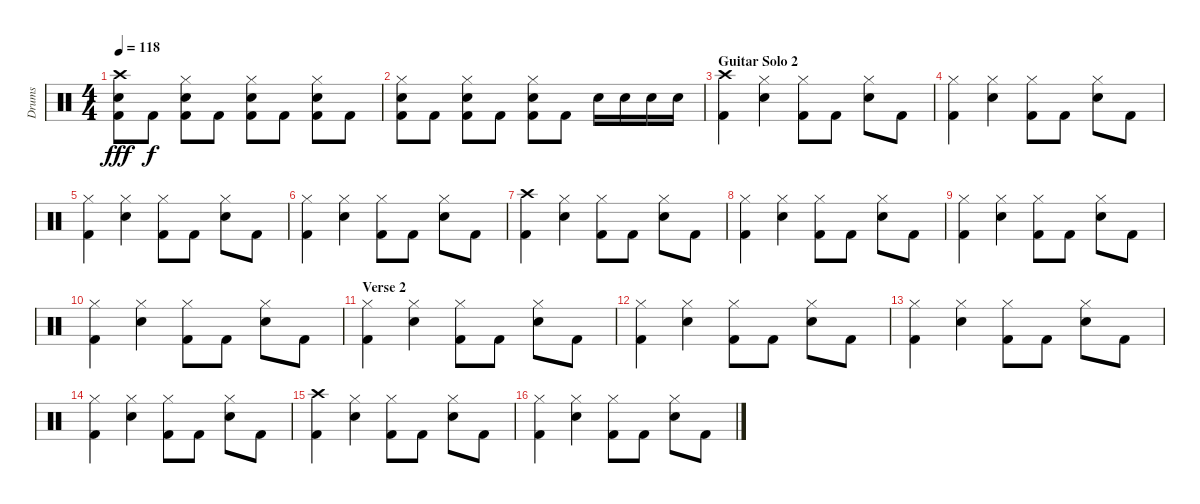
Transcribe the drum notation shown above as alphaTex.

\track ("Drums" "Drums") {instrument percussion}
\staff {score}
\articulation defaults
\ts (4 4)
\tempo 118
\clef neutral
\ks c
("Crash high (hit)" "Snare (hit) 2" "Kick (hit) 2").8{dy fff} "Kick (hit) 2".8{dy f} ("Hi-Hat (closed)" "Snare (hit) 2" "Kick (hit) 2").8 "Kick (hit) 2".8 ("Hi-Hat (closed)" "Snare (hit) 2" "Kick (hit) 2").8 "Kick (hit) 2".8 ("Hi-Hat (closed)" "Snare (hit) 2" "Kick (hit) 2").8 "Kick (hit) 2".8 |
("Hi-Hat (closed)" "Snare (hit) 2" "Kick (hit) 2").8 "Kick (hit) 2".8 ("Hi-Hat (closed)" "Snare (hit) 2" "Kick (hit) 2").8 "Kick (hit) 2".8 ("Hi-Hat (closed)" "Snare (hit) 2" "Kick (hit) 2").8 "Kick (hit) 2".8 "Snare (hit) 2".16 "Snare (hit) 2".16 "Snare (hit) 2".16 "Snare (hit) 2".16 |
\section ("" "Guitar Solo 2")
("Crash high (hit)" "Kick (hit) 2").4 ("Hi-Hat (closed)" "Snare (hit) 2").4 ("Hi-Hat (closed)" "Kick (hit) 2").8 "Kick (hit) 2".8 ("Hi-Hat (closed)" "Snare (hit) 2").8 "Kick (hit) 2".8 |
("Hi-Hat (closed)" "Kick (hit) 2").4 ("Hi-Hat (closed)" "Snare (hit) 2").4 ("Hi-Hat (closed)" "Kick (hit) 2").8 "Kick (hit) 2".8 ("Hi-Hat (closed)" "Snare (hit) 2").8 "Kick (hit) 2".8 |
("Hi-Hat (closed)" "Kick (hit) 2").4 ("Hi-Hat (closed)" "Snare (hit) 2").4 ("Hi-Hat (closed)" "Kick (hit) 2").8 "Kick (hit) 2".8 ("Hi-Hat (closed)" "Snare (hit) 2").8 "Kick (hit) 2".8 |
("Hi-Hat (closed)" "Kick (hit) 2").4 ("Hi-Hat (closed)" "Snare (hit) 2").4 ("Hi-Hat (closed)" "Kick (hit) 2").8 "Kick (hit) 2".8 ("Hi-Hat (closed)" "Snare (hit) 2").8 "Kick (hit) 2".8 |
("Crash high (hit)" "Kick (hit) 2").4 ("Hi-Hat (closed)" "Snare (hit) 2").4 ("Hi-Hat (closed)" "Kick (hit) 2").8 "Kick (hit) 2".8 ("Hi-Hat (closed)" "Snare (hit) 2").8 "Kick (hit) 2".8 |
("Hi-Hat (closed)" "Kick (hit) 2").4 ("Hi-Hat (closed)" "Snare (hit) 2").4 ("Hi-Hat (closed)" "Kick (hit) 2").8 "Kick (hit) 2".8 ("Hi-Hat (closed)" "Snare (hit) 2").8 "Kick (hit) 2".8 |
("Hi-Hat (closed)" "Kick (hit) 2").4 ("Hi-Hat (closed)" "Snare (hit) 2").4 ("Hi-Hat (closed)" "Kick (hit) 2").8 "Kick (hit) 2".8 ("Hi-Hat (closed)" "Snare (hit) 2").8 "Kick (hit) 2".8 |
("Hi-Hat (closed)" "Kick (hit) 2").4 ("Hi-Hat (closed)" "Snare (hit) 2").4 ("Hi-Hat (closed)" "Kick (hit) 2").8 "Kick (hit) 2".8 ("Hi-Hat (closed)" "Snare (hit) 2").8 "Kick (hit) 2".8 |
\section ("" "Verse 2")
("Hi-Hat (closed)" "Kick (hit) 2").4 ("Hi-Hat (closed)" "Snare (hit) 2").4 ("Hi-Hat (closed)" "Kick (hit) 2").8 "Kick (hit) 2".8 ("Hi-Hat (closed)" "Snare (hit) 2").8 "Kick (hit) 2".8 |
("Hi-Hat (closed)" "Kick (hit) 2").4 ("Hi-Hat (closed)" "Snare (hit) 2").4 ("Hi-Hat (closed)" "Kick (hit) 2").8 "Kick (hit) 2".8 ("Hi-Hat (closed)" "Snare (hit) 2").8 "Kick (hit) 2".8 |
("Hi-Hat (closed)" "Kick (hit) 2").4 ("Hi-Hat (closed)" "Snare (hit) 2").4 ("Hi-Hat (closed)" "Kick (hit) 2").8 "Kick (hit) 2".8 ("Hi-Hat (closed)" "Snare (hit) 2").8 "Kick (hit) 2".8 |
("Hi-Hat (closed)" "Kick (hit) 2").4 ("Hi-Hat (closed)" "Snare (hit) 2").4 ("Hi-Hat (closed)" "Kick (hit) 2").8 "Kick (hit) 2".8 ("Hi-Hat (closed)" "Snare (hit) 2").8 "Kick (hit) 2".8 |
("Crash high (hit)" "Kick (hit) 2").4 ("Hi-Hat (closed)" "Snare (hit) 2").4 ("Hi-Hat (closed)" "Kick (hit) 2").8 "Kick (hit) 2".8 ("Hi-Hat (closed)" "Snare (hit) 2").8 "Kick (hit) 2".8 |
("Hi-Hat (closed)" "Kick (hit) 2").4 ("Hi-Hat (closed)" "Snare (hit) 2").4 ("Hi-Hat (closed)" "Kick (hit) 2").8 "Kick (hit) 2".8 ("Hi-Hat (closed)" "Snare (hit) 2").8 "Kick (hit) 2".8
